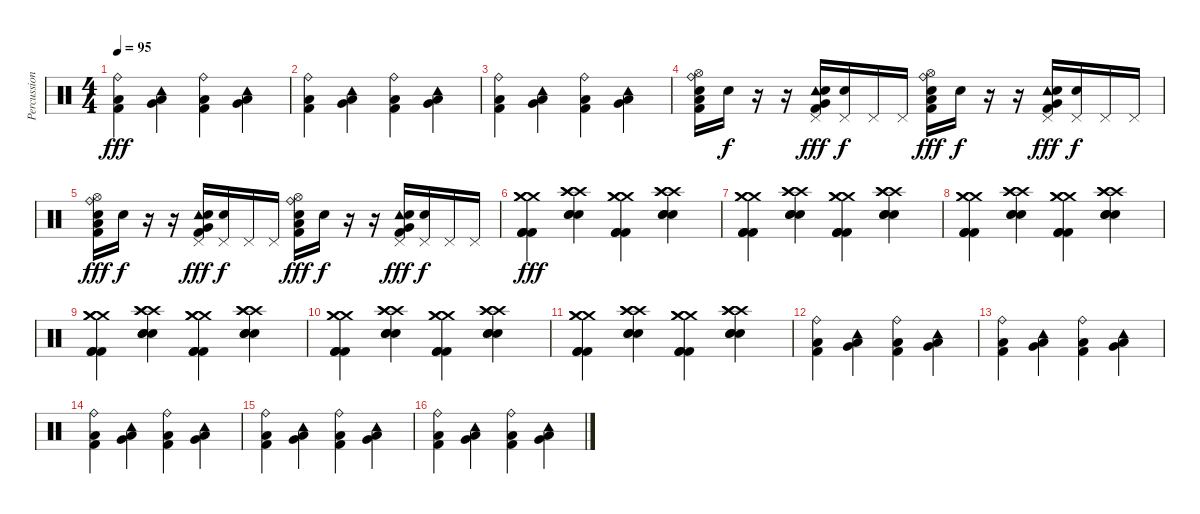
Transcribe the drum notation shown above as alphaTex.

\track ("Percussion" "Percussion") {instrument percussion}
\staff {score}
\articulation defaults
\ts (4 4)
\tempo 95
\clef neutral
\ks c
("Low Floor Tom (hit)" "Kick (hit) 2" "Ride (bell)").4{dy fff} ("Very Low Tom (hit)" "Low Floor Tom (hit)" "Tambourine (hit)").4 ("Low Floor Tom (hit)" "Kick (hit) 2" "Ride (bell)").4 ("Very Low Tom (hit)" "Low Floor Tom (hit)" "Tambourine (hit)").4 |
("Low Floor Tom (hit)" "Kick (hit) 2" "Ride (bell)").4 ("Very Low Tom (hit)" "Low Floor Tom (hit)" "Tambourine (hit)").4 ("Low Floor Tom (hit)" "Kick (hit) 2" "Ride (bell)").4 ("Very Low Tom (hit)" "Low Floor Tom (hit)" "Tambourine (hit)").4 |
("Low Floor Tom (hit)" "Kick (hit) 2" "Ride (bell)").4 ("Very Low Tom (hit)" "Low Floor Tom (hit)" "Tambourine (hit)").4 ("Low Floor Tom (hit)" "Kick (hit) 2" "Ride (bell)").4 ("Very Low Tom (hit)" "Low Floor Tom (hit)" "Tambourine (hit)").4 |
("Low Floor Tom (hit)" "Kick (hit) 2" "Ride (bell)" "Hi-Hat (open)" "Snare (hit) 2").16 "Snare (hit) 2".16{dy f} r.16 r.16 ("Very Low Tom (hit)" "Kick (hit) 2" "Tambourine (hit)" "Pedal Hi-Hat (hit)" "Snare (hit) 2").16{dy fff} ("Pedal Hi-Hat (hit)" "Snare (hit) 2").16{dy f} "Pedal Hi-Hat (hit)".16 "Pedal Hi-Hat (hit)".16 ("Low Floor Tom (hit)" "Kick (hit) 2" "Ride (bell)" "Hi-Hat (open)" "Snare (hit) 2").16{dy fff} "Snare (hit) 2".16{dy f} r.16 r.16 ("Very Low Tom (hit)" "Kick (hit) 2" "Tambourine (hit)" "Pedal Hi-Hat (hit)" "Snare (hit) 2").16{dy fff} ("Pedal Hi-Hat (hit)" "Snare (hit) 2").16{dy f} "Pedal Hi-Hat (hit)".16 "Pedal Hi-Hat (hit)".16 |
("Low Floor Tom (hit)" "Kick (hit) 2" "Ride (bell)" "Hi-Hat (open)" "Snare (hit) 2").16{dy fff} "Snare (hit) 2".16{dy f} r.16 r.16 ("Very Low Tom (hit)" "Kick (hit) 2" "Tambourine (hit)" "Pedal Hi-Hat (hit)" "Snare (hit) 2").16{dy fff} ("Pedal Hi-Hat (hit)" "Snare (hit) 2").16{dy f} "Pedal Hi-Hat (hit)".16 "Pedal Hi-Hat (hit)".16 ("Low Floor Tom (hit)" "Kick (hit) 2" "Ride (bell)" "Hi-Hat (open)" "Snare (hit) 2").16{dy fff} "Snare (hit) 2".16{dy f} r.16 r.16 ("Very Low Tom (hit)" "Kick (hit) 2" "Tambourine (hit)" "Pedal Hi-Hat (hit)" "Snare (hit) 2").16{dy fff} ("Pedal Hi-Hat (hit)" "Snare (hit) 2").16{dy f} "Pedal Hi-Hat (hit)".16 "Pedal Hi-Hat (hit)".16 |
("Kick (hit) 2" "Kick (hit) 2" "Kick (hit) 2" "Crash medium (hit)" "Crash medium (hit)" "Crash medium (hit)").4{dy fff} ("Electric Snare (hit)" "Electric Snare (hit)" "Electric Snare (hit)" "Crash high (hit)" "Crash high (hit)" "Crash high (hit)").4 ("Kick (hit) 2" "Kick (hit) 2" "Kick (hit) 2" "Crash medium (hit)" "Crash medium (hit)" "Crash medium (hit)").4 ("Electric Snare (hit)" "Electric Snare (hit)" "Electric Snare (hit)" "Crash high (hit)" "Crash high (hit)" "Crash high (hit)").4 |
("Kick (hit) 2" "Kick (hit) 2" "Kick (hit) 2" "Crash medium (hit)" "Crash medium (hit)" "Crash medium (hit)").4 ("Electric Snare (hit)" "Electric Snare (hit)" "Electric Snare (hit)" "Crash high (hit)" "Crash high (hit)" "Crash high (hit)").4 ("Kick (hit) 2" "Kick (hit) 2" "Kick (hit) 2" "Crash medium (hit)" "Crash medium (hit)" "Crash medium (hit)").4 ("Electric Snare (hit)" "Electric Snare (hit)" "Electric Snare (hit)" "Crash high (hit)" "Crash high (hit)" "Crash high (hit)").4 |
("Kick (hit) 2" "Kick (hit) 2" "Kick (hit) 2" "Crash medium (hit)" "Crash medium (hit)" "Crash medium (hit)").4 ("Electric Snare (hit)" "Electric Snare (hit)" "Electric Snare (hit)" "Crash high (hit)" "Crash high (hit)" "Crash high (hit)").4 ("Kick (hit) 2" "Kick (hit) 2" "Kick (hit) 2" "Crash medium (hit)" "Crash medium (hit)" "Crash medium (hit)").4 ("Electric Snare (hit)" "Electric Snare (hit)" "Electric Snare (hit)" "Crash high (hit)" "Crash high (hit)" "Crash high (hit)").4 |
("Kick (hit) 2" "Kick (hit) 2" "Kick (hit) 2" "Crash medium (hit)" "Crash medium (hit)" "Crash medium (hit)").4 ("Electric Snare (hit)" "Electric Snare (hit)" "Electric Snare (hit)" "Crash high (hit)" "Crash high (hit)" "Crash high (hit)").4 ("Kick (hit) 2" "Kick (hit) 2" "Kick (hit) 2" "Crash medium (hit)" "Crash medium (hit)" "Crash medium (hit)").4 ("Electric Snare (hit)" "Electric Snare (hit)" "Electric Snare (hit)" "Crash high (hit)" "Crash high (hit)" "Crash high (hit)").4 |
("Kick (hit) 2" "Kick (hit) 2" "Kick (hit) 2" "Crash medium (hit)" "Crash medium (hit)" "Crash medium (hit)").4 ("Electric Snare (hit)" "Electric Snare (hit)" "Electric Snare (hit)" "Crash high (hit)" "Crash high (hit)" "Crash high (hit)").4 ("Kick (hit) 2" "Kick (hit) 2" "Kick (hit) 2" "Crash medium (hit)" "Crash medium (hit)" "Crash medium (hit)").4 ("Electric Snare (hit)" "Electric Snare (hit)" "Electric Snare (hit)" "Crash high (hit)" "Crash high (hit)" "Crash high (hit)").4 |
("Kick (hit) 2" "Kick (hit) 2" "Kick (hit) 2" "Crash medium (hit)" "Crash medium (hit)" "Crash medium (hit)").4 ("Electric Snare (hit)" "Electric Snare (hit)" "Electric Snare (hit)" "Crash high (hit)" "Crash high (hit)" "Crash high (hit)").4 ("Kick (hit) 2" "Kick (hit) 2" "Kick (hit) 2" "Crash medium (hit)" "Crash medium (hit)" "Crash medium (hit)").4 ("Electric Snare (hit)" "Electric Snare (hit)" "Electric Snare (hit)" "Crash high (hit)" "Crash high (hit)" "Crash high (hit)").4 |
("Low Floor Tom (hit)" "Kick (hit) 2" "Ride (bell)").4 ("Very Low Tom (hit)" "Low Floor Tom (hit)" "Tambourine (hit)").4 ("Low Floor Tom (hit)" "Kick (hit) 2" "Ride (bell)").4 ("Very Low Tom (hit)" "Low Floor Tom (hit)" "Tambourine (hit)").4 |
("Low Floor Tom (hit)" "Kick (hit) 2" "Ride (bell)").4 ("Very Low Tom (hit)" "Low Floor Tom (hit)" "Tambourine (hit)").4 ("Low Floor Tom (hit)" "Kick (hit) 2" "Ride (bell)").4 ("Very Low Tom (hit)" "Low Floor Tom (hit)" "Tambourine (hit)").4 |
("Low Floor Tom (hit)" "Kick (hit) 2" "Ride (bell)").4 ("Very Low Tom (hit)" "Low Floor Tom (hit)" "Tambourine (hit)").4 ("Low Floor Tom (hit)" "Kick (hit) 2" "Ride (bell)").4 ("Very Low Tom (hit)" "Low Floor Tom (hit)" "Tambourine (hit)").4 |
("Low Floor Tom (hit)" "Kick (hit) 2" "Ride (bell)").4 ("Very Low Tom (hit)" "Low Floor Tom (hit)" "Tambourine (hit)").4 ("Low Floor Tom (hit)" "Kick (hit) 2" "Ride (bell)").4 ("Very Low Tom (hit)" "Low Floor Tom (hit)" "Tambourine (hit)").4 |
("Low Floor Tom (hit)" "Kick (hit) 2" "Ride (bell)").4 ("Very Low Tom (hit)" "Low Floor Tom (hit)" "Tambourine (hit)").4 ("Low Floor Tom (hit)" "Kick (hit) 2" "Ride (bell)").4 ("Very Low Tom (hit)" "Low Floor Tom (hit)" "Tambourine (hit)").4
